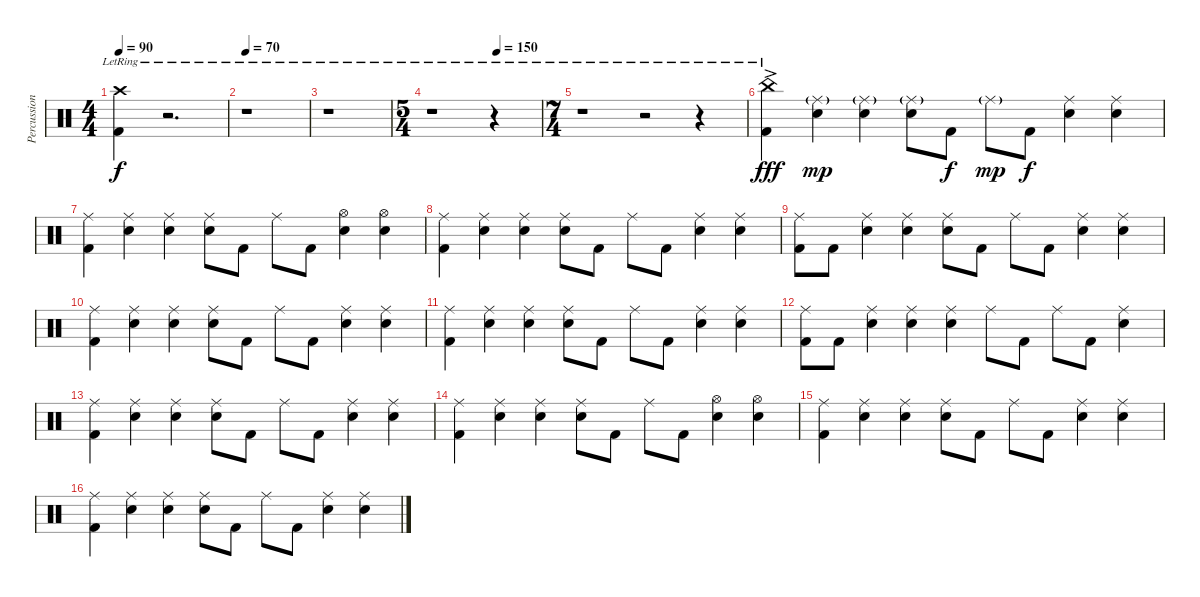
\track ("Percussion" "Percussion") {instrument percussion}
\staff {score}
\articulation defaults
\ts (4 4)
\tempo 90
\clef neutral
\ks c
("Kick (hit) 2" "Crash high (hit)"{lr}).4{dy f} r.2{d} |
\tempo 70
r.1 |
r.1 |
\ts (5 4)
\tempo (150 0.6)
r.1 r.4 |
\ts (7 4)
r.1 r.2 r.4 |
("Kick (hit) 2" "China (hit)"{ac lr}).4{dy fff} ("Snare (hit) 2" "Ride (middle)"{g}).4{dy mp} ("Snare (hit) 2" "Ride (middle)"{g}).4 ("Snare (hit) 2" "Ride (middle)"{g}).8 "Kick (hit) 2".8{dy f} "Ride (middle)"{g}.8{dy mp} "Kick (hit) 2".8{dy f} ("Snare (hit) 2" "Ride (middle)").4 ("Snare (hit) 2" "Ride (middle)").4 |
("Kick (hit) 2" "Ride (middle)").4 ("Snare (hit) 2" "Ride (middle)").4 ("Snare (hit) 2" "Ride (middle)").4 ("Snare (hit) 2" "Ride (middle)").8 "Kick (hit) 2".8 "Ride (middle)".8 "Kick (hit) 2".8 ("Snare (hit) 2" "Hi-Hat (open)").4 ("Snare (hit) 2" "Hi-Hat (open)").4 |
("Kick (hit) 2" "Ride (middle)").4 ("Snare (hit) 2" "Ride (middle)").4 ("Snare (hit) 2" "Ride (middle)").4 ("Snare (hit) 2" "Ride (middle)").8 "Kick (hit) 2".8 "Ride (middle)".8 "Kick (hit) 2".8 ("Snare (hit) 2" "Ride (middle)").4 ("Snare (hit) 2" "Ride (middle)").4 |
("Kick (hit) 2" "Ride (middle)").8 "Kick (hit) 2".8 ("Snare (hit) 2" "Ride (middle)").4 ("Snare (hit) 2" "Ride (middle)").4 ("Snare (hit) 2" "Ride (middle)").8 "Kick (hit) 2".8 "Ride (middle)".8 "Kick (hit) 2".8 ("Snare (hit) 2" "Ride (middle)").4 ("Snare (hit) 2" "Ride (middle)").4 |
("Kick (hit) 2" "Ride (middle)").4 ("Snare (hit) 2" "Ride (middle)").4 ("Snare (hit) 2" "Ride (middle)").4 ("Snare (hit) 2" "Ride (middle)").8 "Kick (hit) 2".8 "Ride (middle)".8 "Kick (hit) 2".8 ("Snare (hit) 2" "Ride (middle)").4 ("Snare (hit) 2" "Ride (middle)").4 |
("Kick (hit) 2" "Ride (middle)").4 ("Snare (hit) 2" "Ride (middle)").4 ("Snare (hit) 2" "Ride (middle)").4 ("Snare (hit) 2" "Ride (middle)").8 "Kick (hit) 2".8 "Ride (middle)".8 "Kick (hit) 2".8 ("Snare (hit) 2" "Ride (middle)").4 ("Snare (hit) 2" "Ride (middle)").4 |
("Kick (hit) 2" "Ride (middle)").8 "Kick (hit) 2".8 ("Snare (hit) 2" "Ride (middle)").4 ("Snare (hit) 2" "Ride (middle)").4 ("Snare (hit) 2" "Ride (middle)").4 "Ride (middle)".8 "Kick (hit) 2".8 "Ride (middle)".8 "Kick (hit) 2".8 ("Snare (hit) 2" "Ride (middle)").4 |
("Kick (hit) 2" "Ride (middle)").4 ("Snare (hit) 2" "Ride (middle)").4 ("Snare (hit) 2" "Ride (middle)").4 ("Snare (hit) 2" "Ride (middle)").8 "Kick (hit) 2".8 "Ride (middle)".8 "Kick (hit) 2".8 ("Snare (hit) 2" "Ride (middle)").4 ("Snare (hit) 2" "Ride (middle)").4 |
("Kick (hit) 2" "Ride (middle)").4 ("Snare (hit) 2" "Ride (middle)").4 ("Snare (hit) 2" "Ride (middle)").4 ("Snare (hit) 2" "Ride (middle)").8 "Kick (hit) 2".8 "Ride (middle)".8 "Kick (hit) 2".8 ("Snare (hit) 2" "Hi-Hat (open)").4 ("Snare (hit) 2" "Hi-Hat (open)").4 |
("Kick (hit) 2" "Ride (middle)").4 ("Snare (hit) 2" "Ride (middle)").4 ("Snare (hit) 2" "Ride (middle)").4 ("Snare (hit) 2" "Ride (middle)").8 "Kick (hit) 2".8 "Ride (middle)".8 "Kick (hit) 2".8 ("Snare (hit) 2" "Ride (middle)").4 ("Snare (hit) 2" "Ride (middle)").4 |
("Kick (hit) 2" "Ride (middle)").4 ("Snare (hit) 2" "Ride (middle)").4 ("Snare (hit) 2" "Ride (middle)").4 ("Snare (hit) 2" "Ride (middle)").8 "Kick (hit) 2".8 "Ride (middle)".8 "Kick (hit) 2".8 ("Snare (hit) 2" "Ride (middle)").4 ("Snare (hit) 2" "Ride (middle)").4
